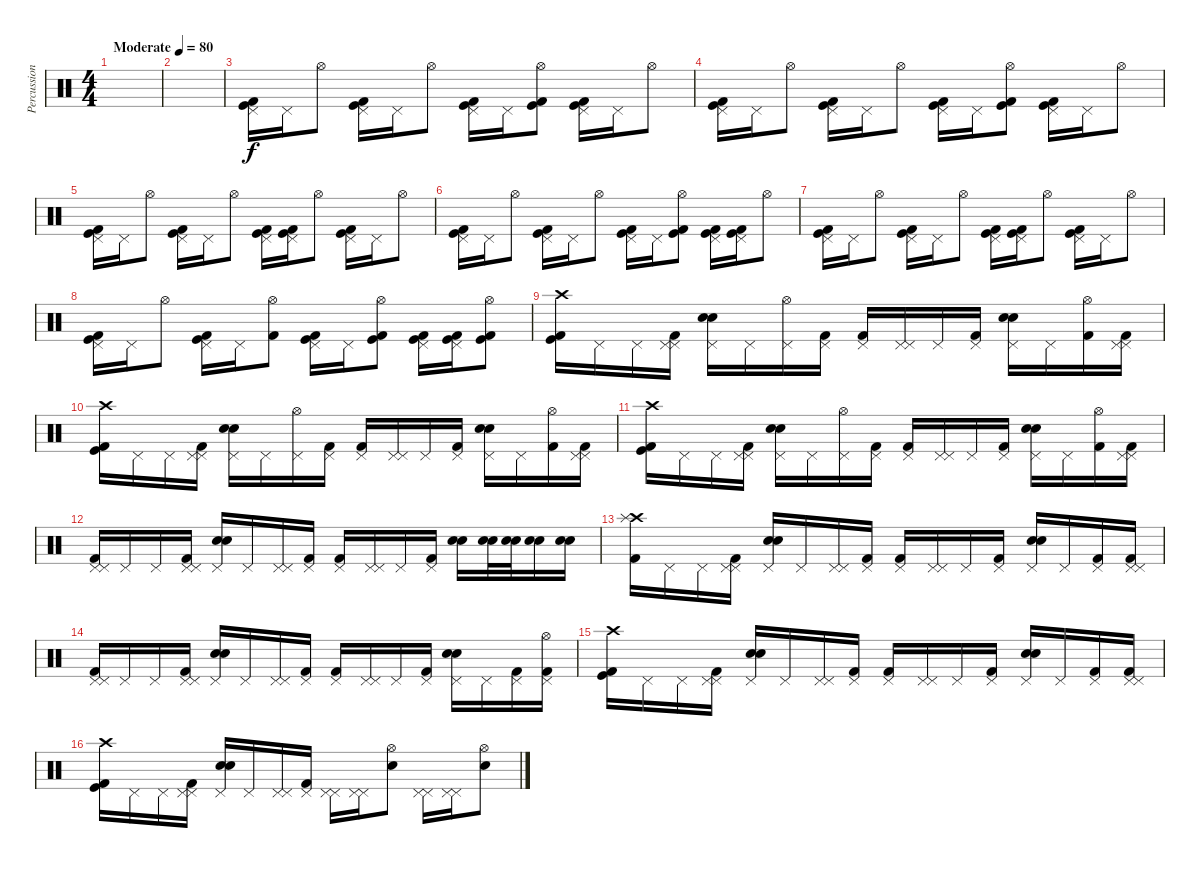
\track ("Percussion" "Percussion") {instrument percussion}
\staff {score}
\articulation defaults
\ts (4 4)
\tempo (80 "Moderate")
\clef neutral
\ks c
|
|
("Pedal Hi-Hat (hit)" "Kick (hit) 2" "Kick (hit)").16 "Pedal Hi-Hat (hit)".16 "Hi-Hat (open)".8 ("Pedal Hi-Hat (hit)" "Kick (hit) 2" "Kick (hit)").16 "Pedal Hi-Hat (hit)".16 "Hi-Hat (open)".8 ("Pedal Hi-Hat (hit)" "Kick (hit) 2" "Kick (hit)").16 "Pedal Hi-Hat (hit)".16 ("Hi-Hat (open)" "Kick (hit) 2" "Kick (hit)").8 ("Pedal Hi-Hat (hit)" "Kick (hit) 2" "Kick (hit)").16 "Pedal Hi-Hat (hit)".16 "Hi-Hat (open)".8 |
("Pedal Hi-Hat (hit)" "Kick (hit) 2" "Kick (hit)").16 "Pedal Hi-Hat (hit)".16 "Hi-Hat (open)".8 ("Pedal Hi-Hat (hit)" "Kick (hit) 2" "Kick (hit)").16 "Pedal Hi-Hat (hit)".16 "Hi-Hat (open)".8 ("Pedal Hi-Hat (hit)" "Kick (hit) 2" "Kick (hit)").16 "Pedal Hi-Hat (hit)".16 ("Hi-Hat (open)" "Kick (hit) 2" "Kick (hit)").8 ("Pedal Hi-Hat (hit)" "Kick (hit) 2" "Kick (hit)").16 "Pedal Hi-Hat (hit)".16 "Hi-Hat (open)".8 |
("Pedal Hi-Hat (hit)" "Kick (hit) 2" "Kick (hit)").16 "Pedal Hi-Hat (hit)".16 "Hi-Hat (open)".8 ("Pedal Hi-Hat (hit)" "Kick (hit) 2" "Kick (hit)").16 "Pedal Hi-Hat (hit)".16 "Hi-Hat (open)".8 ("Pedal Hi-Hat (hit)" "Kick (hit) 2" "Kick (hit)").16 ("Pedal Hi-Hat (hit)" "Kick (hit) 2" "Kick (hit)").16 "Hi-Hat (open)".8 ("Pedal Hi-Hat (hit)" "Kick (hit) 2" "Kick (hit)").16 "Pedal Hi-Hat (hit)".16 "Hi-Hat (open)".8 |
("Pedal Hi-Hat (hit)" "Kick (hit) 2" "Kick (hit)").16 "Pedal Hi-Hat (hit)".16 "Hi-Hat (open)".8 ("Pedal Hi-Hat (hit)" "Kick (hit) 2" "Kick (hit)").16 "Pedal Hi-Hat (hit)".16 "Hi-Hat (open)".8 ("Pedal Hi-Hat (hit)" "Kick (hit) 2" "Kick (hit)").16 "Pedal Hi-Hat (hit)".16 ("Hi-Hat (open)" "Kick (hit) 2" "Kick (hit)").8 ("Pedal Hi-Hat (hit)" "Kick (hit) 2" "Kick (hit)").16 ("Pedal Hi-Hat (hit)" "Kick (hit) 2" "Kick (hit)").16 "Hi-Hat (open)".8 |
("Pedal Hi-Hat (hit)" "Kick (hit) 2" "Kick (hit)").16 "Pedal Hi-Hat (hit)".16 "Hi-Hat (open)".8 ("Pedal Hi-Hat (hit)" "Kick (hit) 2" "Kick (hit)").16 "Pedal Hi-Hat (hit)".16 "Hi-Hat (open)".8 ("Pedal Hi-Hat (hit)" "Kick (hit) 2" "Kick (hit)").16 ("Pedal Hi-Hat (hit)" "Kick (hit)" "Kick (hit) 2").16 "Hi-Hat (open)".8 ("Pedal Hi-Hat (hit)" "Kick (hit) 2" "Kick (hit)").16 "Pedal Hi-Hat (hit)".16 "Hi-Hat (open)".8 |
("Pedal Hi-Hat (hit)" "Kick (hit) 2" "Kick (hit)").16 "Pedal Hi-Hat (hit)".16 "Hi-Hat (open)".8 ("Pedal Hi-Hat (hit)" "Kick (hit) 2" "Kick (hit)").16 "Pedal Hi-Hat (hit)".16 ("Hi-Hat (open)" "Kick (hit) 2").8 ("Pedal Hi-Hat (hit)" "Kick (hit) 2" "Kick (hit)").16 "Pedal Hi-Hat (hit)".16 ("Hi-Hat (open)" "Kick (hit) 2" "Kick (hit)").8 ("Pedal Hi-Hat (hit)" "Kick (hit) 2" "Kick (hit)").16 ("Pedal Hi-Hat (hit)" "Kick (hit) 2" "Kick (hit)").16 ("Hi-Hat (open)" "Kick (hit) 2" "Kick (hit)").8 |
("Crash high (hit)" "Kick (hit)" "Kick (hit) 2").16 "Pedal Hi-Hat (hit)".16 "Pedal Hi-Hat (hit)".16 ("Pedal Hi-Hat (hit)" "Pedal Hi-Hat (hit)" "Kick (hit) 2").16 ("Electric Snare (hit)" "Pedal Hi-Hat (hit)" "Electric Snare (hit)").16 "Pedal Hi-Hat (hit)".16 ("Pedal Hi-Hat (hit)" "Hi-Hat (open)").16 ("Pedal Hi-Hat (hit)" "Kick (hit) 2").16 ("Pedal Hi-Hat (hit)" "Kick (hit) 2").16 ("Pedal Hi-Hat (hit)" "Pedal Hi-Hat (hit)").16 "Pedal Hi-Hat (hit)".16 ("Pedal Hi-Hat (hit)" "Kick (hit) 2").16 ("Electric Snare (hit)" "Pedal Hi-Hat (hit)" "Electric Snare (hit)").16 "Pedal Hi-Hat (hit)".16 ("Hi-Hat (open)" "Kick (hit) 2").16 ("Pedal Hi-Hat (hit)" "Pedal Hi-Hat (hit)" "Kick (hit) 2").16 |
("Crash high (hit)" "Kick (hit)" "Kick (hit) 2").16 "Pedal Hi-Hat (hit)".16 "Pedal Hi-Hat (hit)".16 ("Pedal Hi-Hat (hit)" "Pedal Hi-Hat (hit)" "Kick (hit) 2").16 ("Electric Snare (hit)" "Pedal Hi-Hat (hit)" "Electric Snare (hit)").16 "Pedal Hi-Hat (hit)".16 ("Pedal Hi-Hat (hit)" "Hi-Hat (open)").16 ("Pedal Hi-Hat (hit)" "Kick (hit) 2").16 ("Pedal Hi-Hat (hit)" "Kick (hit) 2").16 ("Pedal Hi-Hat (hit)" "Pedal Hi-Hat (hit)").16 "Pedal Hi-Hat (hit)".16 ("Pedal Hi-Hat (hit)" "Kick (hit) 2").16 ("Electric Snare (hit)" "Pedal Hi-Hat (hit)" "Electric Snare (hit)").16 "Pedal Hi-Hat (hit)".16 ("Hi-Hat (open)" "Kick (hit) 2").16 ("Pedal Hi-Hat (hit)" "Pedal Hi-Hat (hit)" "Kick (hit) 2").16 |
("Crash high (hit)" "Kick (hit)" "Kick (hit) 2").16 "Pedal Hi-Hat (hit)".16 "Pedal Hi-Hat (hit)".16 ("Pedal Hi-Hat (hit)" "Pedal Hi-Hat (hit)" "Kick (hit) 2").16 ("Electric Snare (hit)" "Pedal Hi-Hat (hit)" "Electric Snare (hit)").16 "Pedal Hi-Hat (hit)".16 ("Pedal Hi-Hat (hit)" "Hi-Hat (open)").16 ("Pedal Hi-Hat (hit)" "Kick (hit) 2").16 ("Pedal Hi-Hat (hit)" "Kick (hit) 2").16 ("Pedal Hi-Hat (hit)" "Pedal Hi-Hat (hit)").16 "Pedal Hi-Hat (hit)".16 ("Pedal Hi-Hat (hit)" "Kick (hit) 2").16 ("Electric Snare (hit)" "Pedal Hi-Hat (hit)" "Electric Snare (hit)").16 "Pedal Hi-Hat (hit)".16 ("Hi-Hat (open)" "Kick (hit) 2").16 ("Pedal Hi-Hat (hit)" "Pedal Hi-Hat (hit)" "Kick (hit) 2").16 |
("Pedal Hi-Hat (hit)" "Pedal Hi-Hat (hit)" "Kick (hit) 2").16 "Pedal Hi-Hat (hit)".16 "Pedal Hi-Hat (hit)".16 ("Pedal Hi-Hat (hit)" "Pedal Hi-Hat (hit)" "Kick (hit) 2").16 ("Electric Snare (hit)" "Pedal Hi-Hat (hit)" "Electric Snare (hit)").16 "Pedal Hi-Hat (hit)".16 ("Pedal Hi-Hat (hit)" "Pedal Hi-Hat (hit)").16 ("Pedal Hi-Hat (hit)" "Kick (hit) 2").16 ("Pedal Hi-Hat (hit)" "Kick (hit) 2").16 ("Pedal Hi-Hat (hit)" "Pedal Hi-Hat (hit)").16 "Pedal Hi-Hat (hit)".16 ("Pedal Hi-Hat (hit)" "Kick (hit) 2").16 ("Electric Snare (hit)" "Electric Snare (hit)").16 ("Electric Snare (hit)" "Electric Snare (hit)").32 ("Electric Snare (hit)" "Electric Snare (hit)").32 ("Electric Snare (hit)" "Electric Snare (hit)").16 ("Electric Snare (hit)" "Electric Snare (hit)").16 |
("Crash high (hit)" "Splash (hit)" "Kick (hit) 2").16 "Pedal Hi-Hat (hit)".16 "Pedal Hi-Hat (hit)".16 ("Pedal Hi-Hat (hit)" "Pedal Hi-Hat (hit)" "Kick (hit) 2").16 ("Electric Snare (hit)" "Pedal Hi-Hat (hit)" "Electric Snare (hit)").16 "Pedal Hi-Hat (hit)".16 ("Pedal Hi-Hat (hit)" "Pedal Hi-Hat (hit)").16 ("Pedal Hi-Hat (hit)" "Kick (hit) 2").16 ("Pedal Hi-Hat (hit)" "Kick (hit) 2").16 ("Pedal Hi-Hat (hit)" "Pedal Hi-Hat (hit)").16 "Pedal Hi-Hat (hit)".16 ("Pedal Hi-Hat (hit)" "Kick (hit) 2").16 ("Electric Snare (hit)" "Pedal Hi-Hat (hit)" "Electric Snare (hit)").16 "Pedal Hi-Hat (hit)".16 ("Pedal Hi-Hat (hit)" "Kick (hit) 2").16 ("Pedal Hi-Hat (hit)" "Pedal Hi-Hat (hit)" "Kick (hit) 2").16 |
("Pedal Hi-Hat (hit)" "Pedal Hi-Hat (hit)" "Kick (hit) 2").16 "Pedal Hi-Hat (hit)".16 "Pedal Hi-Hat (hit)".16 ("Pedal Hi-Hat (hit)" "Pedal Hi-Hat (hit)" "Kick (hit) 2").16 ("Electric Snare (hit)" "Pedal Hi-Hat (hit)" "Electric Snare (hit)").16 "Pedal Hi-Hat (hit)".16 ("Pedal Hi-Hat (hit)" "Pedal Hi-Hat (hit)").16 ("Pedal Hi-Hat (hit)" "Kick (hit) 2").16 ("Pedal Hi-Hat (hit)" "Kick (hit) 2").16 ("Pedal Hi-Hat (hit)" "Pedal Hi-Hat (hit)").16 "Pedal Hi-Hat (hit)".16 ("Pedal Hi-Hat (hit)" "Kick (hit) 2").16 ("Electric Snare (hit)" "Pedal Hi-Hat (hit)" "Electric Snare (hit)").16 "Pedal Hi-Hat (hit)".16 ("Pedal Hi-Hat (hit)" "Kick (hit) 2").16 ("Pedal Hi-Hat (hit)" "Hi-Hat (open)" "Kick (hit) 2").16 |
("Crash high (hit)" "Kick (hit)" "Kick (hit) 2").16 "Pedal Hi-Hat (hit)".16 "Pedal Hi-Hat (hit)".16 ("Pedal Hi-Hat (hit)" "Pedal Hi-Hat (hit)" "Kick (hit) 2").16 ("Electric Snare (hit)" "Pedal Hi-Hat (hit)" "Electric Snare (hit)").16 "Pedal Hi-Hat (hit)".16 ("Pedal Hi-Hat (hit)" "Pedal Hi-Hat (hit)").16 ("Pedal Hi-Hat (hit)" "Kick (hit) 2").16 ("Pedal Hi-Hat (hit)" "Kick (hit) 2").16 ("Pedal Hi-Hat (hit)" "Pedal Hi-Hat (hit)").16 "Pedal Hi-Hat (hit)".16 ("Pedal Hi-Hat (hit)" "Kick (hit) 2").16 ("Electric Snare (hit)" "Pedal Hi-Hat (hit)" "Electric Snare (hit)").16 "Pedal Hi-Hat (hit)".16 ("Pedal Hi-Hat (hit)" "Kick (hit) 2").16 ("Pedal Hi-Hat (hit)" "Pedal Hi-Hat (hit)" "Kick (hit) 2").16 |
("Crash high (hit)" "Kick (hit)" "Kick (hit) 2").16 "Pedal Hi-Hat (hit)".16 "Pedal Hi-Hat (hit)".16 ("Pedal Hi-Hat (hit)" "Pedal Hi-Hat (hit)" "Kick (hit) 2").16 ("Electric Snare (hit)" "Pedal Hi-Hat (hit)" "Electric Snare (hit)").16 "Pedal Hi-Hat (hit)".16 ("Pedal Hi-Hat (hit)" "Pedal Hi-Hat (hit)").16 ("Pedal Hi-Hat (hit)" "Kick (hit) 2").16 ("Pedal Hi-Hat (hit)" "Pedal Hi-Hat (hit)").16 ("Pedal Hi-Hat (hit)" "Pedal Hi-Hat (hit)").16 ("Electric Snare (hit)" "Hi-Hat (open)").8 ("Pedal Hi-Hat (hit)" "Pedal Hi-Hat (hit)").16 ("Pedal Hi-Hat (hit)" "Pedal Hi-Hat (hit)").16 ("Electric Snare (hit)" "Hi-Hat (open)").8
